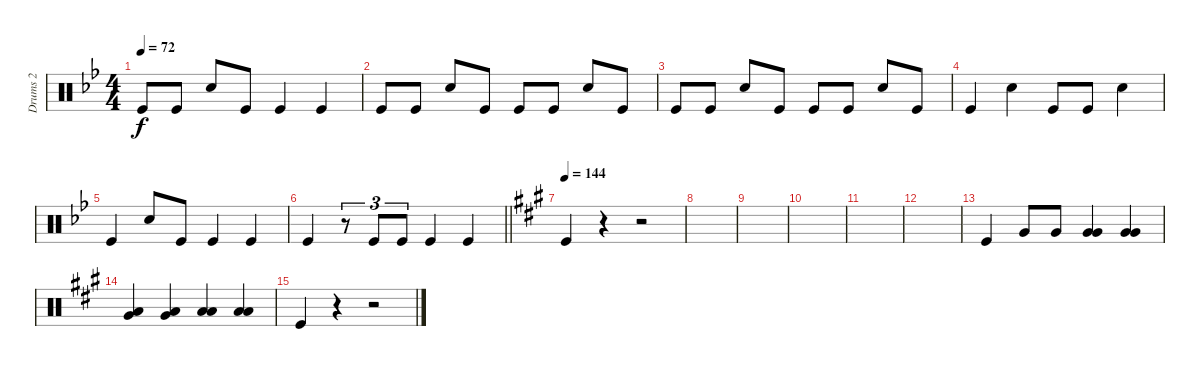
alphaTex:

\track ("Drums 2" "Drums 2") {instrument percussion}
\staff {score}
\articulation defaults
\ts (4 4)
\tempo 72
\clef neutral
\ks bb "Kick (hit)".8{dy f} "Kick (hit)".8 "Snare (hit) 2".8 "Kick (hit)".8 "Kick (hit)".4 "Kick (hit)".4
|
"Kick (hit)".8 "Kick (hit)".8 "Snare (hit) 2".8 "Kick (hit)".8 "Kick (hit)".8 "Kick (hit)".8 "Snare (hit) 2".8 "Kick (hit)".8 |
"Kick (hit)".8 "Kick (hit)".8 "Snare (hit) 2".8 "Kick (hit)".8 "Kick (hit)".8 "Kick (hit)".8 "Snare (hit) 2".8 "Kick (hit)".8 |
"Kick (hit)".4 "Snare (hit) 2".4 "Kick (hit)".8 "Kick (hit)".8 "Snare (hit) 2".4 |
"Kick (hit)".4 "Snare (hit) 2".8 "Kick (hit)".8 "Kick (hit)".4 "Kick (hit)".4 |
\barLineRight lightlight "Kick (hit)".4
r.8{tu (3 2)} "Kick (hit)".8{tu (3 2)} "Kick (hit)".8{tu (3 2)} "Kick (hit)".4 "Kick (hit)".4 |
\tempo 144
\ks a "Kick (hit)".4
r.4 r.2 |
|
|
|
|
|
"Kick (hit)".4 "Very Low Tom (hit)".8 "Very Low Tom (hit)".8 ("Very Low Tom (hit)" "Very Low Tom (hit)").4 ("Very Low Tom (hit)" "Very Low Tom (hit)").4 |
("Low Floor Tom (hit)" "Very Low Tom (hit)").4 ("Very Low Tom (hit)" "Low Floor Tom (hit)").4 ("Low Floor Tom (hit)" "Low Floor Tom (hit)").4 ("Low Floor Tom (hit)" "Low Floor Tom (hit)").4 |
"Kick (hit)".4 r.4 r.2
